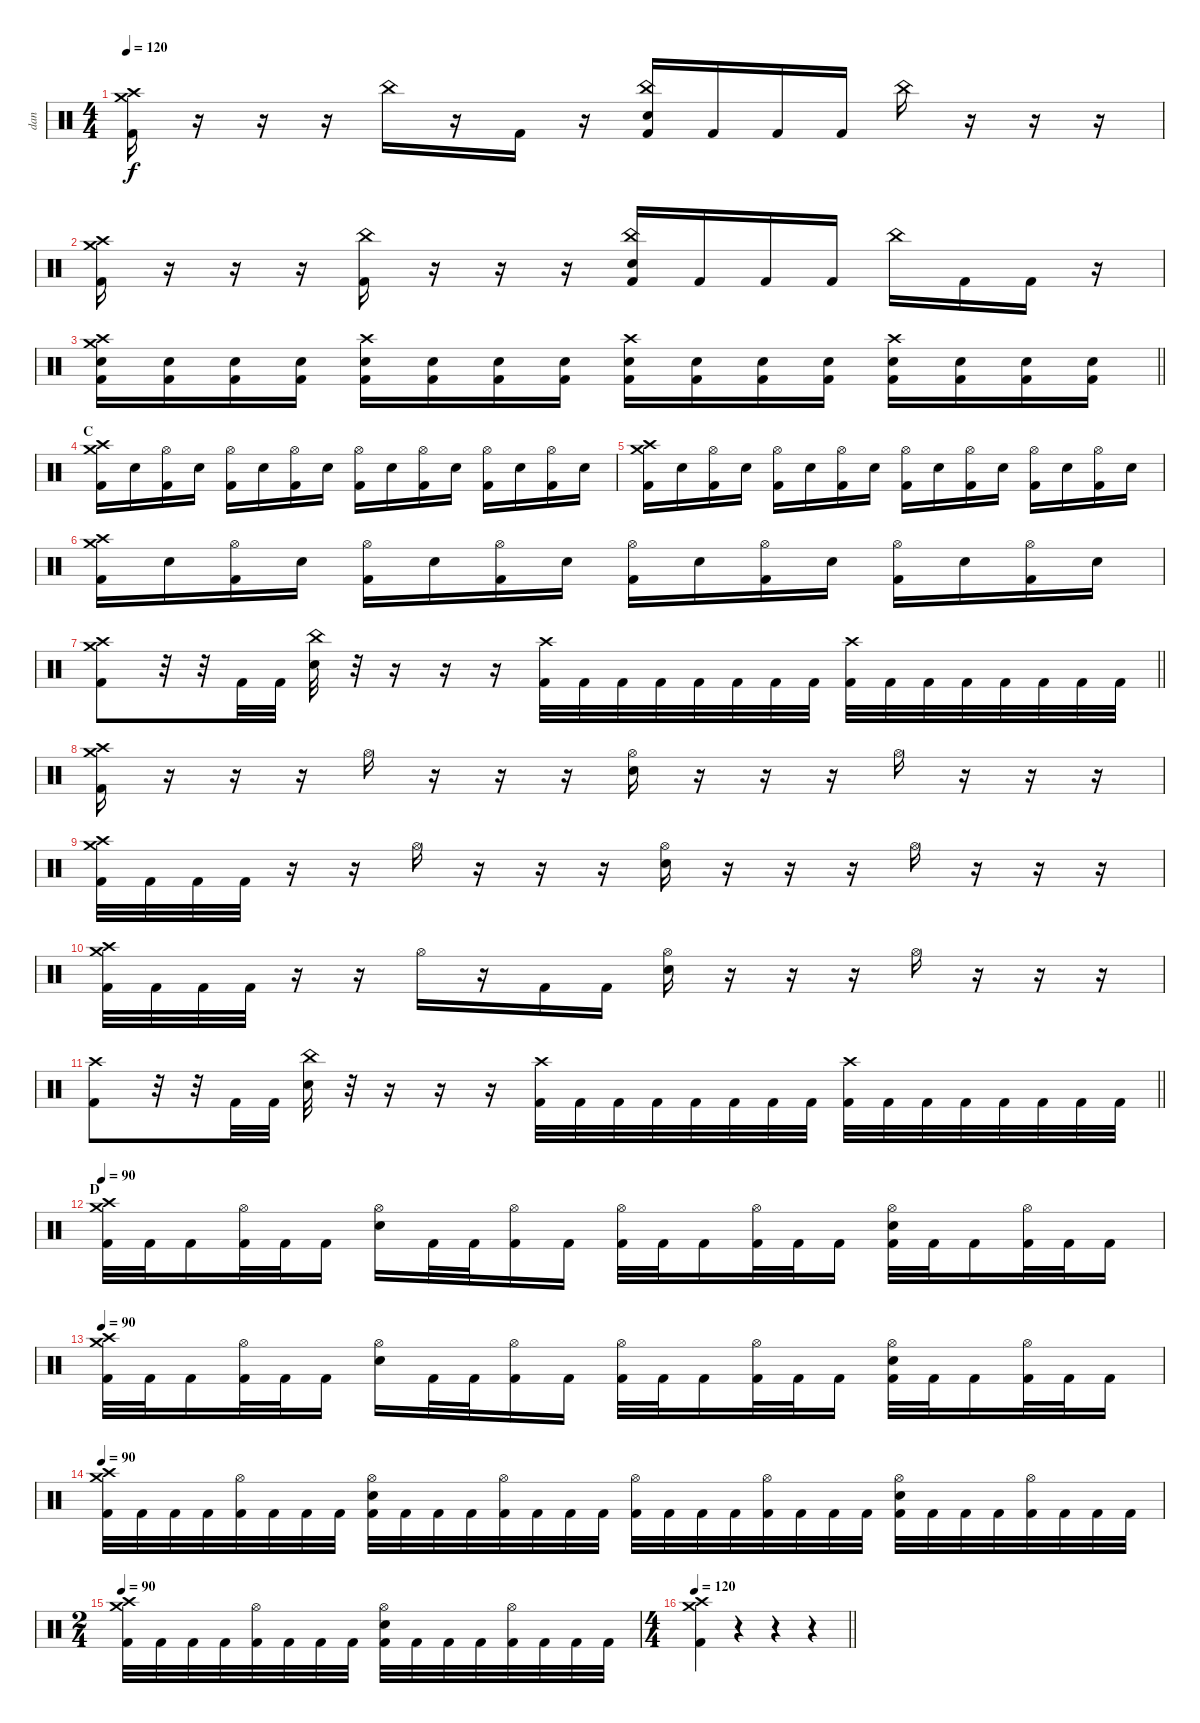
\track ("dan" "dan") {instrument percussion}
\staff {score}
\articulation defaults
\ts (4 4)
\tempo 120
\clef neutral
\ks c
("Crash high (hit)" "Crash medium (hit)" "Kick (hit) 2").16{dy f} r.16 r.16 r.16 "China (hit)".16 r.16 "Kick (hit) 2".16 r.16 ("China (hit)" "Electric Snare (hit)" "Kick (hit) 2").16 "Kick (hit) 2".16 "Kick (hit) 2".16 "Kick (hit) 2".16 "China (hit)".16 r.16 r.16 r.16 |
("Crash high (hit)" "Crash medium (hit)" "Kick (hit) 2").16 r.16 r.16 r.16 ("China (hit)" "Kick (hit) 2").16 r.16 r.16 r.16 ("China (hit)" "Electric Snare (hit)" "Kick (hit) 2").16 "Kick (hit) 2".16 "Kick (hit) 2".16 "Kick (hit) 2".16 "China (hit)".16 "Kick (hit) 2".16 "Kick (hit) 2".16 r.16 |
\barLineRight lightlight
("Crash high (hit)" "Crash medium (hit)" "Electric Snare (hit)" "Kick (hit) 2").16 ("Electric Snare (hit)" "Kick (hit) 2").16 ("Electric Snare (hit)" "Kick (hit) 2").16 ("Electric Snare (hit)" "Kick (hit) 2").16 ("Crash high (hit)" "Electric Snare (hit)" "Kick (hit) 2").16 ("Electric Snare (hit)" "Kick (hit) 2").16 ("Electric Snare (hit)" "Kick (hit) 2").16 ("Electric Snare (hit)" "Kick (hit) 2").16 ("Crash high (hit)" "Electric Snare (hit)" "Kick (hit) 2").16 ("Electric Snare (hit)" "Kick (hit) 2").16 ("Electric Snare (hit)" "Kick (hit) 2").16 ("Electric Snare (hit)" "Kick (hit) 2").16 ("Crash high (hit)" "Electric Snare (hit)" "Kick (hit) 2").16 ("Electric Snare (hit)" "Kick (hit) 2").16 ("Electric Snare (hit)" "Kick (hit) 2").16 ("Electric Snare (hit)" "Kick (hit) 2").16 |
\section ("" "C")
("Crash high (hit)" "Crash medium (hit)" "Kick (hit) 2").16 "Electric Snare (hit)".16 ("Hi-Hat (open)" "Kick (hit) 2").16 "Electric Snare (hit)".16 ("Hi-Hat (open)" "Kick (hit) 2").16 "Electric Snare (hit)".16 ("Hi-Hat (open)" "Kick (hit) 2").16 "Electric Snare (hit)".16 ("Hi-Hat (open)" "Kick (hit) 2").16 "Electric Snare (hit)".16 ("Hi-Hat (open)" "Kick (hit) 2").16 "Electric Snare (hit)".16 ("Hi-Hat (open)" "Kick (hit) 2").16 "Electric Snare (hit)".16 ("Hi-Hat (open)" "Kick (hit) 2").16 "Electric Snare (hit)".16 |
("Crash high (hit)" "Crash medium (hit)" "Kick (hit) 2").16 "Electric Snare (hit)".16 ("Hi-Hat (open)" "Kick (hit) 2").16 "Electric Snare (hit)".16 ("Hi-Hat (open)" "Kick (hit) 2").16 "Electric Snare (hit)".16 ("Hi-Hat (open)" "Kick (hit) 2").16 "Electric Snare (hit)".16 ("Hi-Hat (open)" "Kick (hit) 2").16 "Electric Snare (hit)".16 ("Hi-Hat (open)" "Kick (hit) 2").16 "Electric Snare (hit)".16 ("Hi-Hat (open)" "Kick (hit) 2").16 "Electric Snare (hit)".16 ("Hi-Hat (open)" "Kick (hit) 2").16 "Electric Snare (hit)".16 |
("Crash high (hit)" "Crash medium (hit)" "Kick (hit) 2").16 "Electric Snare (hit)".16 ("Hi-Hat (open)" "Kick (hit) 2").16 "Electric Snare (hit)".16 ("Hi-Hat (open)" "Kick (hit) 2").16 "Electric Snare (hit)".16 ("Hi-Hat (open)" "Kick (hit) 2").16 "Electric Snare (hit)".16 ("Hi-Hat (open)" "Kick (hit) 2").16 "Electric Snare (hit)".16 ("Hi-Hat (open)" "Kick (hit) 2").16 "Electric Snare (hit)".16 ("Hi-Hat (open)" "Kick (hit) 2").16 "Electric Snare (hit)".16 ("Hi-Hat (open)" "Kick (hit) 2").16 "Electric Snare (hit)".16 |
\barLineRight lightlight
("Crash high (hit)" "Crash medium (hit)" "Kick (hit) 2").8 r.32 r.32 "Kick (hit) 2".32 "Kick (hit) 2".32 ("China (hit)" "Electric Snare (hit)").32 r.32 r.16 r.16 r.16 ("Crash high (hit)" "Kick (hit) 2").32 "Kick (hit) 2".32 "Kick (hit) 2".32 "Kick (hit) 2".32 "Kick (hit) 2".32 "Kick (hit) 2".32 "Kick (hit) 2".32 "Kick (hit) 2".32 ("Crash high (hit)" "Kick (hit) 2").32 "Kick (hit) 2".32 "Kick (hit) 2".32 "Kick (hit) 2".32 "Kick (hit) 2".32 "Kick (hit) 2".32 "Kick (hit) 2".32 "Kick (hit) 2".32 |
("Crash high (hit)" "Crash medium (hit)" "Kick (hit) 2").16 r.16 r.16 r.16 "Hi-Hat (open)".16 r.16 r.16 r.16 ("Hi-Hat (open)" "Electric Snare (hit)").16 r.16 r.16 r.16 "Hi-Hat (open)".16 r.16 r.16 r.16 |
("Crash high (hit)" "Crash medium (hit)" "Kick (hit) 2").32 "Kick (hit) 2".32 "Kick (hit) 2".32 "Kick (hit) 2".32 r.16 r.16 "Hi-Hat (open)".16 r.16 r.16 r.16 ("Hi-Hat (open)" "Electric Snare (hit)").16 r.16 r.16 r.16 "Hi-Hat (open)".16 r.16 r.16 r.16 |
("Crash high (hit)" "Crash medium (hit)" "Kick (hit) 2").32 "Kick (hit) 2".32 "Kick (hit) 2".32 "Kick (hit) 2".32 r.16 r.16 "Hi-Hat (open)".16 r.16 "Kick (hit) 2".16 "Kick (hit) 2".16 ("Hi-Hat (open)" "Electric Snare (hit)").16 r.16 r.16 r.16 "Hi-Hat (open)".16 r.16 r.16 r.16 |
\barLineRight lightlight
("Crash high (hit)" "Kick (hit) 2").8 r.32 r.32 "Kick (hit) 2".32 "Kick (hit) 2".32 ("China (hit)" "Electric Snare (hit)").32 r.32 r.16 r.16 r.16 ("Crash high (hit)" "Kick (hit) 2").32 "Kick (hit) 2".32 "Kick (hit) 2".32 "Kick (hit) 2".32 "Kick (hit) 2".32 "Kick (hit) 2".32 "Kick (hit) 2".32 "Kick (hit) 2".32 ("Crash high (hit)" "Kick (hit) 2").32 "Kick (hit) 2".32 "Kick (hit) 2".32 "Kick (hit) 2".32 "Kick (hit) 2".32 "Kick (hit) 2".32 "Kick (hit) 2".32 "Kick (hit) 2".32 |
\section ("" "D")
\tempo 90
("Crash high (hit)" "Crash medium (hit)" "Kick (hit) 2").32 "Kick (hit) 2".32 "Kick (hit) 2".16 ("Hi-Hat (open)" "Kick (hit) 2").32 "Kick (hit) 2".32 "Kick (hit) 2".16 ("Hi-Hat (open)" "Electric Snare (hit)").16 "Kick (hit) 2".32 "Kick (hit) 2".32 ("Hi-Hat (open)" "Kick (hit) 2").16 "Kick (hit) 2".16 ("Hi-Hat (open)" "Kick (hit) 2").32 "Kick (hit) 2".32 "Kick (hit) 2".16 ("Hi-Hat (open)" "Kick (hit) 2").32 "Kick (hit) 2".32 "Kick (hit) 2".16 ("Hi-Hat (open)" "Electric Snare (hit)" "Kick (hit) 2").32 "Kick (hit) 2".32 "Kick (hit) 2".16 ("Hi-Hat (open)" "Kick (hit) 2").32 "Kick (hit) 2".32 "Kick (hit) 2".16 |
\tempo 90
("Crash high (hit)" "Crash medium (hit)" "Kick (hit) 2").32 "Kick (hit) 2".32 "Kick (hit) 2".16 ("Hi-Hat (open)" "Kick (hit) 2").32 "Kick (hit) 2".32 "Kick (hit) 2".16 ("Hi-Hat (open)" "Electric Snare (hit)").16 "Kick (hit) 2".32 "Kick (hit) 2".32 ("Hi-Hat (open)" "Kick (hit) 2").16 "Kick (hit) 2".16 ("Hi-Hat (open)" "Kick (hit) 2").32 "Kick (hit) 2".32 "Kick (hit) 2".16 ("Hi-Hat (open)" "Kick (hit) 2").32 "Kick (hit) 2".32 "Kick (hit) 2".16 ("Hi-Hat (open)" "Electric Snare (hit)" "Kick (hit) 2").32 "Kick (hit) 2".32 "Kick (hit) 2".16 ("Hi-Hat (open)" "Kick (hit) 2").32 "Kick (hit) 2".32 "Kick (hit) 2".16 |
\tempo 90
("Crash high (hit)" "Crash medium (hit)" "Kick (hit) 2").32 "Kick (hit) 2".32 "Kick (hit) 2".32 "Kick (hit) 2".32 ("Hi-Hat (open)" "Kick (hit) 2").32 "Kick (hit) 2".32 "Kick (hit) 2".32 "Kick (hit) 2".32 ("Hi-Hat (open)" "Electric Snare (hit)" "Kick (hit) 2").32 "Kick (hit) 2".32 "Kick (hit) 2".32 "Kick (hit) 2".32 ("Hi-Hat (open)" "Kick (hit) 2").32 "Kick (hit) 2".32 "Kick (hit) 2".32 "Kick (hit) 2".32 ("Hi-Hat (open)" "Kick (hit) 2").32 "Kick (hit) 2".32 "Kick (hit) 2".32 "Kick (hit) 2".32 ("Hi-Hat (open)" "Kick (hit) 2").32 "Kick (hit) 2".32 "Kick (hit) 2".32 "Kick (hit) 2".32 ("Hi-Hat (open)" "Electric Snare (hit)" "Kick (hit) 2").32 "Kick (hit) 2".32 "Kick (hit) 2".32 "Kick (hit) 2".32 ("Hi-Hat (open)" "Kick (hit) 2").32 "Kick (hit) 2".32 "Kick (hit) 2".32 "Kick (hit) 2".32 |
\ts (2 4)
\tempo 90
("Crash high (hit)" "Crash medium (hit)" "Kick (hit) 2").32 "Kick (hit) 2".32 "Kick (hit) 2".32 "Kick (hit) 2".32 ("Hi-Hat (open)" "Kick (hit) 2").32 "Kick (hit) 2".32 "Kick (hit) 2".32 "Kick (hit) 2".32 ("Hi-Hat (open)" "Electric Snare (hit)" "Kick (hit) 2").32 "Kick (hit) 2".32 "Kick (hit) 2".32 "Kick (hit) 2".32 ("Hi-Hat (open)" "Kick (hit) 2").32 "Kick (hit) 2".32 "Kick (hit) 2".32 "Kick (hit) 2".32 |
\ts (4 4)
\tempo 120
\barLineRight lightlight
("Crash high (hit)" "Crash medium (hit)" "Kick (hit) 2").4 r.4 r.4 r.4
